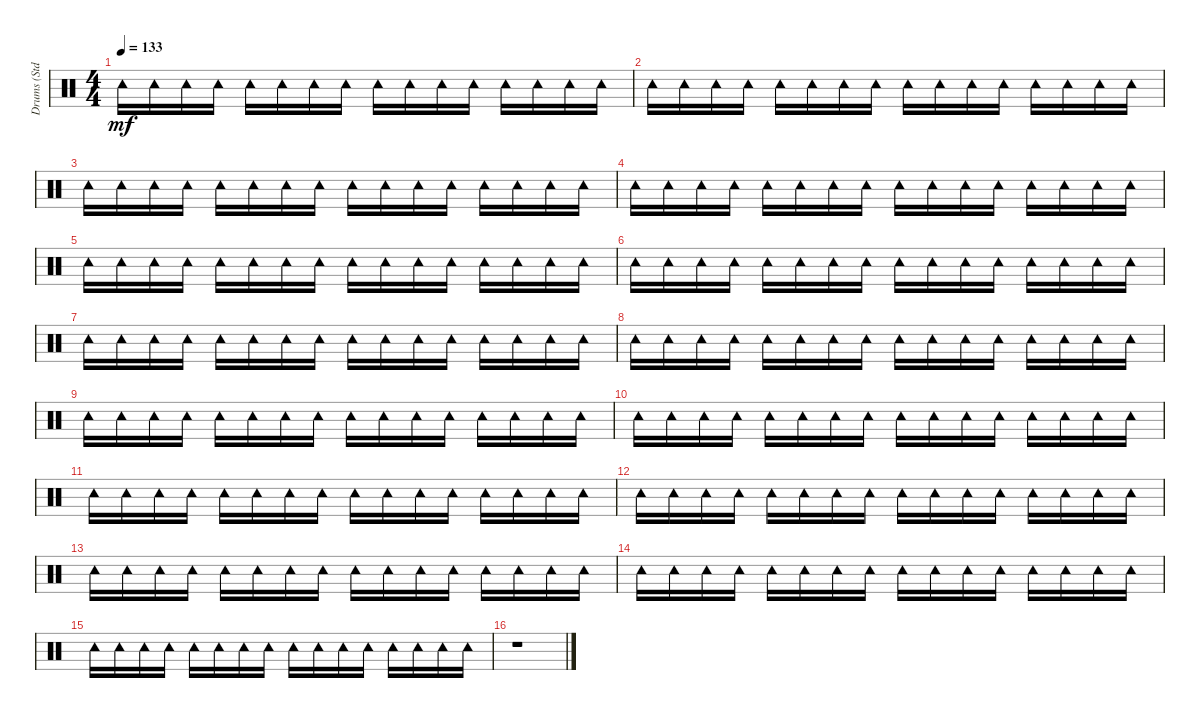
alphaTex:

\track ("Drums (Std.)" "Drums (Std") {instrument percussion}
\staff {score}
\articulation defaults
\ts (4 4)
\tempo 133
\clef neutral
\ks c "Tambourine (hit)".16{dy mf} "Tambourine (hit)".16 "Tambourine (hit)".16 "Tambourine (hit)".16 "Tambourine (hit)".16 "Tambourine (hit)".16 "Tambourine (hit)".16 "Tambourine (hit)".16 "Tambourine (hit)".16 "Tambourine (hit)".16 "Tambourine (hit)".16 "Tambourine (hit)".16 "Tambourine (hit)".16 "Tambourine (hit)".16 "Tambourine (hit)".16 "Tambourine (hit)".16
|
"Tambourine (hit)".16 "Tambourine (hit)".16 "Tambourine (hit)".16 "Tambourine (hit)".16 "Tambourine (hit)".16 "Tambourine (hit)".16 "Tambourine (hit)".16 "Tambourine (hit)".16 "Tambourine (hit)".16 "Tambourine (hit)".16 "Tambourine (hit)".16 "Tambourine (hit)".16 "Tambourine (hit)".16 "Tambourine (hit)".16 "Tambourine (hit)".16 "Tambourine (hit)".16 |
"Tambourine (hit)".16 "Tambourine (hit)".16 "Tambourine (hit)".16 "Tambourine (hit)".16 "Tambourine (hit)".16 "Tambourine (hit)".16 "Tambourine (hit)".16 "Tambourine (hit)".16 "Tambourine (hit)".16 "Tambourine (hit)".16 "Tambourine (hit)".16 "Tambourine (hit)".16 "Tambourine (hit)".16 "Tambourine (hit)".16 "Tambourine (hit)".16 "Tambourine (hit)".16 |
"Tambourine (hit)".16 "Tambourine (hit)".16 "Tambourine (hit)".16 "Tambourine (hit)".16 "Tambourine (hit)".16 "Tambourine (hit)".16 "Tambourine (hit)".16 "Tambourine (hit)".16 "Tambourine (hit)".16 "Tambourine (hit)".16 "Tambourine (hit)".16 "Tambourine (hit)".16 "Tambourine (hit)".16 "Tambourine (hit)".16 "Tambourine (hit)".16 "Tambourine (hit)".16 |
"Tambourine (hit)".16 "Tambourine (hit)".16 "Tambourine (hit)".16 "Tambourine (hit)".16 "Tambourine (hit)".16 "Tambourine (hit)".16 "Tambourine (hit)".16 "Tambourine (hit)".16 "Tambourine (hit)".16 "Tambourine (hit)".16 "Tambourine (hit)".16 "Tambourine (hit)".16 "Tambourine (hit)".16 "Tambourine (hit)".16 "Tambourine (hit)".16 "Tambourine (hit)".16 |
"Tambourine (hit)".16 "Tambourine (hit)".16 "Tambourine (hit)".16 "Tambourine (hit)".16 "Tambourine (hit)".16 "Tambourine (hit)".16 "Tambourine (hit)".16 "Tambourine (hit)".16 "Tambourine (hit)".16 "Tambourine (hit)".16 "Tambourine (hit)".16 "Tambourine (hit)".16 "Tambourine (hit)".16 "Tambourine (hit)".16 "Tambourine (hit)".16 "Tambourine (hit)".16 |
"Tambourine (hit)".16 "Tambourine (hit)".16 "Tambourine (hit)".16 "Tambourine (hit)".16 "Tambourine (hit)".16 "Tambourine (hit)".16 "Tambourine (hit)".16 "Tambourine (hit)".16 "Tambourine (hit)".16 "Tambourine (hit)".16 "Tambourine (hit)".16 "Tambourine (hit)".16 "Tambourine (hit)".16 "Tambourine (hit)".16 "Tambourine (hit)".16 "Tambourine (hit)".16 |
"Tambourine (hit)".16 "Tambourine (hit)".16 "Tambourine (hit)".16 "Tambourine (hit)".16 "Tambourine (hit)".16 "Tambourine (hit)".16 "Tambourine (hit)".16 "Tambourine (hit)".16 "Tambourine (hit)".16 "Tambourine (hit)".16 "Tambourine (hit)".16 "Tambourine (hit)".16 "Tambourine (hit)".16 "Tambourine (hit)".16 "Tambourine (hit)".16 "Tambourine (hit)".16 |
"Tambourine (hit)".16 "Tambourine (hit)".16 "Tambourine (hit)".16 "Tambourine (hit)".16 "Tambourine (hit)".16 "Tambourine (hit)".16 "Tambourine (hit)".16 "Tambourine (hit)".16 "Tambourine (hit)".16 "Tambourine (hit)".16 "Tambourine (hit)".16 "Tambourine (hit)".16 "Tambourine (hit)".16 "Tambourine (hit)".16 "Tambourine (hit)".16 "Tambourine (hit)".16 |
"Tambourine (hit)".16 "Tambourine (hit)".16 "Tambourine (hit)".16 "Tambourine (hit)".16 "Tambourine (hit)".16 "Tambourine (hit)".16 "Tambourine (hit)".16 "Tambourine (hit)".16 "Tambourine (hit)".16 "Tambourine (hit)".16 "Tambourine (hit)".16 "Tambourine (hit)".16 "Tambourine (hit)".16 "Tambourine (hit)".16 "Tambourine (hit)".16 "Tambourine (hit)".16 |
"Tambourine (hit)".16 "Tambourine (hit)".16 "Tambourine (hit)".16 "Tambourine (hit)".16 "Tambourine (hit)".16 "Tambourine (hit)".16 "Tambourine (hit)".16 "Tambourine (hit)".16 "Tambourine (hit)".16 "Tambourine (hit)".16 "Tambourine (hit)".16 "Tambourine (hit)".16 "Tambourine (hit)".16 "Tambourine (hit)".16 "Tambourine (hit)".16 "Tambourine (hit)".16 |
"Tambourine (hit)".16 "Tambourine (hit)".16 "Tambourine (hit)".16 "Tambourine (hit)".16 "Tambourine (hit)".16 "Tambourine (hit)".16 "Tambourine (hit)".16 "Tambourine (hit)".16 "Tambourine (hit)".16 "Tambourine (hit)".16 "Tambourine (hit)".16 "Tambourine (hit)".16 "Tambourine (hit)".16 "Tambourine (hit)".16 "Tambourine (hit)".16 "Tambourine (hit)".16 |
"Tambourine (hit)".16 "Tambourine (hit)".16 "Tambourine (hit)".16 "Tambourine (hit)".16 "Tambourine (hit)".16 "Tambourine (hit)".16 "Tambourine (hit)".16 "Tambourine (hit)".16 "Tambourine (hit)".16 "Tambourine (hit)".16 "Tambourine (hit)".16 "Tambourine (hit)".16 "Tambourine (hit)".16 "Tambourine (hit)".16 "Tambourine (hit)".16 "Tambourine (hit)".16 |
"Tambourine (hit)".16 "Tambourine (hit)".16 "Tambourine (hit)".16 "Tambourine (hit)".16 "Tambourine (hit)".16 "Tambourine (hit)".16 "Tambourine (hit)".16 "Tambourine (hit)".16 "Tambourine (hit)".16 "Tambourine (hit)".16 "Tambourine (hit)".16 "Tambourine (hit)".16 "Tambourine (hit)".16 "Tambourine (hit)".16 "Tambourine (hit)".16 "Tambourine (hit)".16 |
"Tambourine (hit)".16 "Tambourine (hit)".16 "Tambourine (hit)".16 "Tambourine (hit)".16 "Tambourine (hit)".16 "Tambourine (hit)".16 "Tambourine (hit)".16 "Tambourine (hit)".16 "Tambourine (hit)".16 "Tambourine (hit)".16 "Tambourine (hit)".16 "Tambourine (hit)".16 "Tambourine (hit)".16 "Tambourine (hit)".16 "Tambourine (hit)".16 "Tambourine (hit)".16 |
r.1
